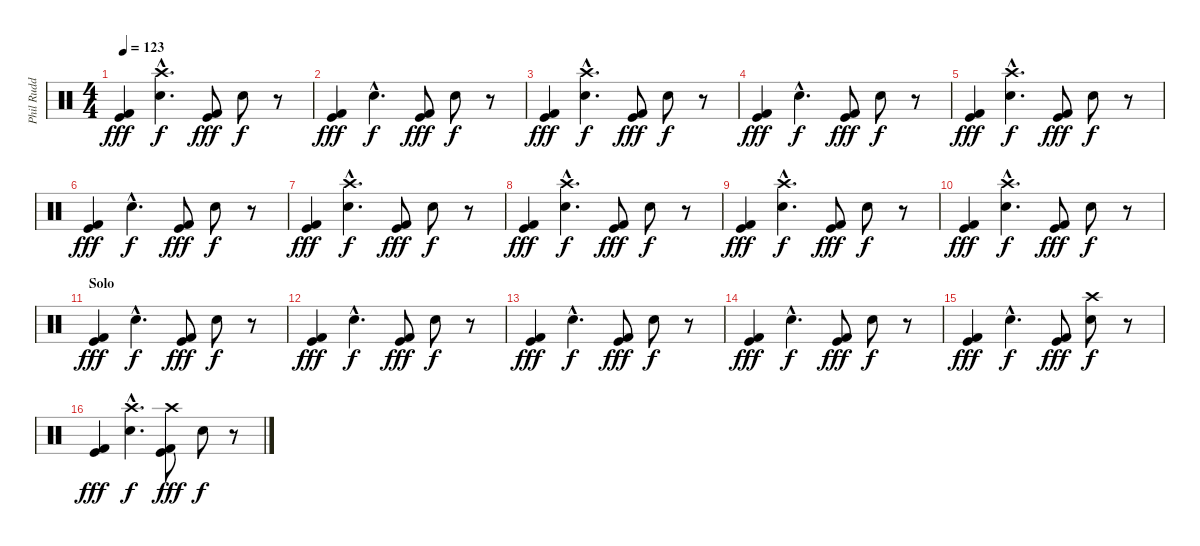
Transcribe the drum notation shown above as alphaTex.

\track ("Phil Rudd (Drums)" "Phil Rudd ") {instrument percussion}
\staff {score}
\articulation defaults
\ts (4 4)
\tempo 123
\clef neutral
\ks c
("Kick (hit) 2" "Kick (hit)").4{dy fff} ("Snare (hit) 2"{hac} "Crash high (hit)"{hac}).4{d dy f} ("Kick (hit) 2" "Kick (hit)").8{dy fff} "Snare (hit) 2".8{dy f} r.8 |
("Kick (hit) 2" "Kick (hit)").4{dy fff} "Snare (hit) 2"{hac}.4{d dy f} ("Kick (hit) 2" "Kick (hit)").8{dy fff} "Snare (hit) 2".8{dy f} r.8 |
("Kick (hit) 2" "Kick (hit)").4{dy fff} ("Snare (hit) 2"{hac} "Crash high (hit)"{hac}).4{d dy f} ("Kick (hit) 2" "Kick (hit)").8{dy fff} "Snare (hit) 2".8{dy f} r.8 |
("Kick (hit) 2" "Kick (hit)").4{dy fff} "Snare (hit) 2"{hac}.4{d dy f} ("Kick (hit) 2" "Kick (hit)").8{dy fff} "Snare (hit) 2".8{dy f} r.8 |
("Kick (hit) 2" "Kick (hit)").4{dy fff} ("Snare (hit) 2"{hac} "Crash high (hit)"{hac}).4{d dy f} ("Kick (hit) 2" "Kick (hit)").8{dy fff} "Snare (hit) 2".8{dy f} r.8 |
("Kick (hit) 2" "Kick (hit)").4{dy fff} "Snare (hit) 2"{hac}.4{d dy f} ("Kick (hit) 2" "Kick (hit)").8{dy fff} "Snare (hit) 2".8{dy f} r.8 |
("Kick (hit) 2" "Kick (hit)").4{dy fff} ("Snare (hit) 2"{hac} "Crash high (hit)"{hac}).4{d dy f} ("Kick (hit) 2" "Kick (hit)").8{dy fff} "Snare (hit) 2".8{dy f} r.8 |
("Kick (hit) 2" "Kick (hit)").4{dy fff} ("Snare (hit) 2"{hac} "Crash high (hit)"{hac}).4{d dy f} ("Kick (hit) 2" "Kick (hit)").8{dy fff} "Snare (hit) 2".8{dy f} r.8 |
("Kick (hit) 2" "Kick (hit)").4{dy fff} ("Snare (hit) 2"{hac} "Crash high (hit)"{hac}).4{d dy f} ("Kick (hit) 2" "Kick (hit)").8{dy fff} "Snare (hit) 2".8{dy f} r.8 |
("Kick (hit) 2" "Kick (hit)").4{dy fff} ("Snare (hit) 2"{hac} "Crash high (hit)"{hac}).4{d dy f} ("Kick (hit) 2" "Kick (hit)").8{dy fff} "Snare (hit) 2".8{dy f} r.8 |
\section ("" "Solo")
("Kick (hit) 2" "Kick (hit)").4{dy fff} "Snare (hit) 2"{hac}.4{d dy f} ("Kick (hit) 2" "Kick (hit)").8{dy fff} "Snare (hit) 2".8{dy f} r.8 |
("Kick (hit) 2" "Kick (hit)").4{dy fff} "Snare (hit) 2"{hac}.4{d dy f} ("Kick (hit) 2" "Kick (hit)").8{dy fff} "Snare (hit) 2".8{dy f} r.8 |
("Kick (hit) 2" "Kick (hit)").4{dy fff} "Snare (hit) 2"{hac}.4{d dy f} ("Kick (hit) 2" "Kick (hit)").8{dy fff} "Snare (hit) 2".8{dy f} r.8 |
("Kick (hit) 2" "Kick (hit)").4{dy fff} "Snare (hit) 2"{hac}.4{d dy f} ("Kick (hit) 2" "Kick (hit)").8{dy fff} "Snare (hit) 2".8{dy f} r.8 |
("Kick (hit) 2" "Kick (hit)").4{dy fff} "Snare (hit) 2"{hac}.4{d dy f} ("Kick (hit) 2" "Kick (hit)").8{dy fff} ("Snare (hit) 2" "Crash high (hit)").8{dy f} r.8 |
("Kick (hit) 2" "Kick (hit)").4{dy fff} ("Snare (hit) 2"{hac} "Crash high (hit)"{hac}).4{d dy f} ("Kick (hit) 2" "Kick (hit)" "Crash high (hit)").8{dy fff} "Snare (hit) 2".8{dy f} r.8
